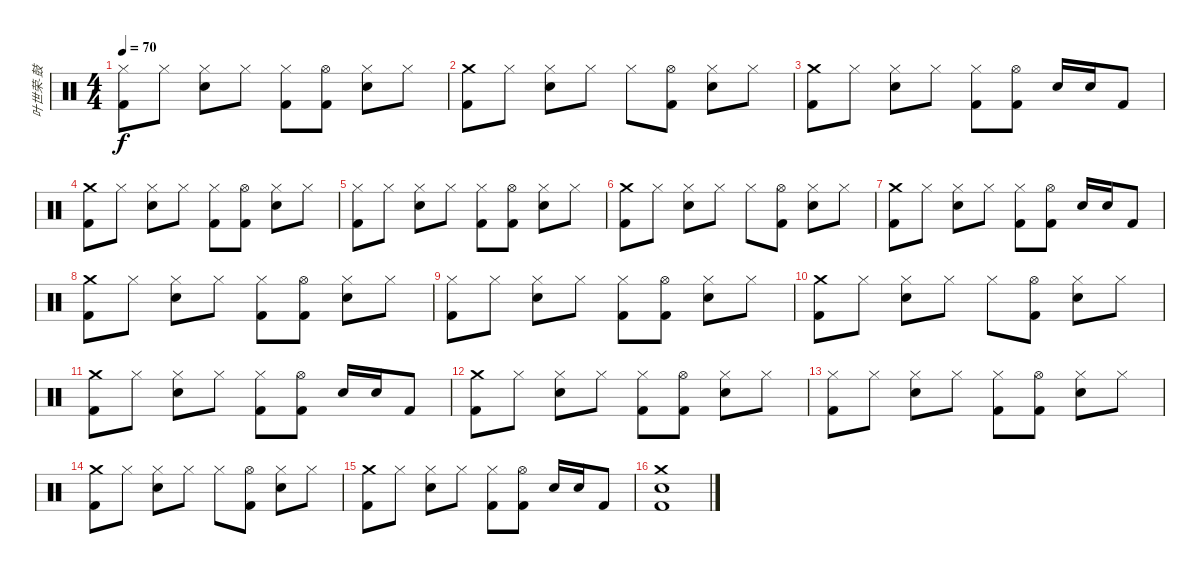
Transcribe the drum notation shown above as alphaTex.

\track ("叶世荣-鼓" "叶世荣-鼓") {instrument percussion}
\staff {score}
\articulation defaults
\ts (4 4)
\tempo 70
\clef neutral
\ks c
("Hi-Hat (closed)" "Kick (hit) 2").8{dy f} "Hi-Hat (closed)".8 ("Hi-Hat (closed)" "Snare (hit) 2").8 "Hi-Hat (closed)".8 ("Hi-Hat (closed)" "Kick (hit) 2").8 ("Hi-Hat (open)" "Kick (hit) 2").8 ("Hi-Hat (closed)" "Snare (hit) 2").8 "Hi-Hat (closed)".8 |
("Crash medium (hit)" "Kick (hit) 2").8 "Hi-Hat (closed)".8 ("Hi-Hat (closed)" "Snare (hit) 2").8 "Hi-Hat (closed)".8 "Hi-Hat (closed)".8 ("Hi-Hat (open)" "Kick (hit) 2").8 ("Hi-Hat (closed)" "Snare (hit) 2").8 "Hi-Hat (closed)".8 |
("Crash medium (hit)" "Kick (hit) 2").8 "Hi-Hat (closed)".8 ("Hi-Hat (closed)" "Snare (hit) 2").8 "Hi-Hat (closed)".8 ("Hi-Hat (closed)" "Kick (hit) 2").8 ("Hi-Hat (open)" "Kick (hit) 2").8 "Snare (hit) 2".16 "Snare (hit) 2".16 "Kick (hit) 2".8 |
("Crash medium (hit)" "Kick (hit) 2").8 "Hi-Hat (closed)".8 ("Hi-Hat (closed)" "Snare (hit) 2").8 "Hi-Hat (closed)".8 ("Hi-Hat (closed)" "Kick (hit) 2").8 ("Hi-Hat (open)" "Kick (hit) 2").8 ("Hi-Hat (closed)" "Snare (hit) 2").8 "Hi-Hat (closed)".8 |
("Hi-Hat (closed)" "Kick (hit) 2").8 "Hi-Hat (closed)".8 ("Hi-Hat (closed)" "Snare (hit) 2").8 "Hi-Hat (closed)".8 ("Hi-Hat (closed)" "Kick (hit) 2").8 ("Hi-Hat (open)" "Kick (hit) 2").8 ("Hi-Hat (closed)" "Snare (hit) 2").8 "Hi-Hat (closed)".8 |
("Crash medium (hit)" "Kick (hit) 2").8 "Hi-Hat (closed)".8 ("Hi-Hat (closed)" "Snare (hit) 2").8 "Hi-Hat (closed)".8 "Hi-Hat (closed)".8 ("Hi-Hat (open)" "Kick (hit) 2").8 ("Hi-Hat (closed)" "Snare (hit) 2").8 "Hi-Hat (closed)".8 |
("Crash medium (hit)" "Kick (hit) 2").8 "Hi-Hat (closed)".8 ("Hi-Hat (closed)" "Snare (hit) 2").8 "Hi-Hat (closed)".8 ("Hi-Hat (closed)" "Kick (hit) 2").8 ("Hi-Hat (open)" "Kick (hit) 2").8 "Snare (hit) 2".16 "Snare (hit) 2".16 "Kick (hit) 2".8 |
("Crash medium (hit)" "Kick (hit) 2").8 "Hi-Hat (closed)".8 ("Hi-Hat (closed)" "Snare (hit) 2").8 "Hi-Hat (closed)".8 ("Hi-Hat (closed)" "Kick (hit) 2").8 ("Hi-Hat (open)" "Kick (hit) 2").8 ("Hi-Hat (closed)" "Snare (hit) 2").8 "Hi-Hat (closed)".8 |
("Hi-Hat (closed)" "Kick (hit) 2").8 "Hi-Hat (closed)".8 ("Hi-Hat (closed)" "Snare (hit) 2").8 "Hi-Hat (closed)".8 ("Hi-Hat (closed)" "Kick (hit) 2").8 ("Hi-Hat (open)" "Kick (hit) 2").8 ("Hi-Hat (closed)" "Snare (hit) 2").8 "Hi-Hat (closed)".8 |
("Crash medium (hit)" "Kick (hit) 2").8 "Hi-Hat (closed)".8 ("Hi-Hat (closed)" "Snare (hit) 2").8 "Hi-Hat (closed)".8 "Hi-Hat (closed)".8 ("Hi-Hat (open)" "Kick (hit) 2").8 ("Hi-Hat (closed)" "Snare (hit) 2").8 "Hi-Hat (closed)".8 |
("Crash medium (hit)" "Kick (hit) 2").8 "Hi-Hat (closed)".8 ("Hi-Hat (closed)" "Snare (hit) 2").8 "Hi-Hat (closed)".8 ("Hi-Hat (closed)" "Kick (hit) 2").8 ("Hi-Hat (open)" "Kick (hit) 2").8 "Snare (hit) 2".16 "Snare (hit) 2".16 "Kick (hit) 2".8 |
("Crash medium (hit)" "Kick (hit) 2").8 "Hi-Hat (closed)".8 ("Hi-Hat (closed)" "Snare (hit) 2").8 "Hi-Hat (closed)".8 ("Hi-Hat (closed)" "Kick (hit) 2").8 ("Hi-Hat (open)" "Kick (hit) 2").8 ("Hi-Hat (closed)" "Snare (hit) 2").8 "Hi-Hat (closed)".8 |
("Hi-Hat (closed)" "Kick (hit) 2").8 "Hi-Hat (closed)".8 ("Hi-Hat (closed)" "Snare (hit) 2").8 "Hi-Hat (closed)".8 ("Hi-Hat (closed)" "Kick (hit) 2").8 ("Hi-Hat (open)" "Kick (hit) 2").8 ("Hi-Hat (closed)" "Snare (hit) 2").8 "Hi-Hat (closed)".8 |
("Crash medium (hit)" "Kick (hit) 2").8 "Hi-Hat (closed)".8 ("Hi-Hat (closed)" "Snare (hit) 2").8 "Hi-Hat (closed)".8 "Hi-Hat (closed)".8 ("Hi-Hat (open)" "Kick (hit) 2").8 ("Hi-Hat (closed)" "Snare (hit) 2").8 "Hi-Hat (closed)".8 |
("Crash medium (hit)" "Kick (hit) 2").8 "Hi-Hat (closed)".8 ("Hi-Hat (closed)" "Snare (hit) 2").8 "Hi-Hat (closed)".8 ("Hi-Hat (closed)" "Kick (hit) 2").8 ("Hi-Hat (open)" "Kick (hit) 2").8 "Snare (hit) 2".16 "Snare (hit) 2".16 "Kick (hit) 2".8 |
("Crash medium (hit)" "Snare (hit) 2" "Kick (hit) 2").1
